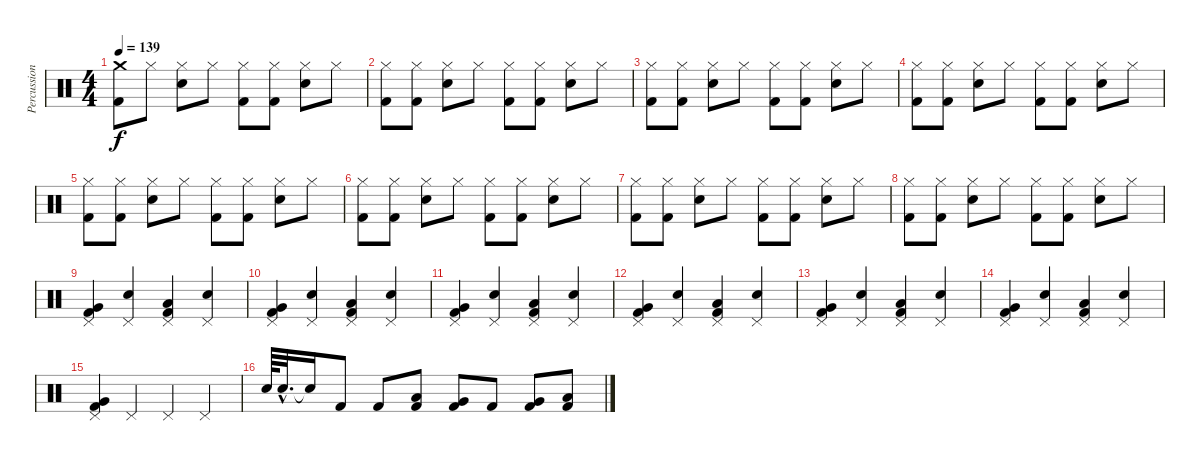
\track ("Percussion" "Percussion") {instrument percussion}
\staff {score}
\articulation defaults
\ts (4 4)
\tempo 139
\clef neutral
\ks c
("Crash medium (hit)" "Kick (hit) 2").8{dy f} "Hi-Hat (closed)".8 ("Hi-Hat (closed)" "Metronome (bell)").8 "Hi-Hat (closed)".8 ("Hi-Hat (closed)" "Kick (hit) 2").8 ("Hi-Hat (closed)" "Kick (hit) 2").8 ("Hi-Hat (closed)" "Metronome (bell)").8 "Hi-Hat (closed)".8 |
("Hi-Hat (closed)" "Kick (hit) 2").8 ("Hi-Hat (closed)" "Kick (hit) 2").8 ("Hi-Hat (closed)" "Metronome (bell)").8 "Hi-Hat (closed)".8 ("Hi-Hat (closed)" "Kick (hit) 2").8 ("Hi-Hat (closed)" "Kick (hit) 2").8 ("Hi-Hat (closed)" "Metronome (bell)").8 "Hi-Hat (closed)".8 |
("Hi-Hat (closed)" "Kick (hit) 2").8 ("Hi-Hat (closed)" "Kick (hit) 2").8 ("Hi-Hat (closed)" "Metronome (bell)").8 "Hi-Hat (closed)".8 ("Hi-Hat (closed)" "Kick (hit) 2").8 ("Hi-Hat (closed)" "Kick (hit) 2").8 ("Hi-Hat (closed)" "Metronome (bell)").8 "Hi-Hat (closed)".8 |
("Hi-Hat (closed)" "Kick (hit) 2").8 ("Hi-Hat (closed)" "Kick (hit) 2").8 ("Hi-Hat (closed)" "Metronome (bell)").8 "Hi-Hat (closed)".8 ("Hi-Hat (closed)" "Kick (hit) 2").8 ("Hi-Hat (closed)" "Kick (hit) 2").8 ("Hi-Hat (closed)" "Metronome (bell)").8 "Hi-Hat (closed)".8 |
("Hi-Hat (closed)" "Kick (hit) 2").8 ("Hi-Hat (closed)" "Kick (hit) 2").8 ("Hi-Hat (closed)" "Metronome (bell)").8 "Hi-Hat (closed)".8 ("Hi-Hat (closed)" "Kick (hit) 2").8 ("Hi-Hat (closed)" "Kick (hit) 2").8 ("Hi-Hat (closed)" "Metronome (bell)").8 "Hi-Hat (closed)".8 |
("Hi-Hat (closed)" "Kick (hit) 2").8 ("Hi-Hat (closed)" "Kick (hit) 2").8 ("Hi-Hat (closed)" "Metronome (bell)").8 "Hi-Hat (closed)".8 ("Hi-Hat (closed)" "Kick (hit) 2").8 ("Hi-Hat (closed)" "Kick (hit) 2").8 ("Hi-Hat (closed)" "Metronome (bell)").8 "Hi-Hat (closed)".8 |
("Hi-Hat (closed)" "Kick (hit) 2").8 ("Hi-Hat (closed)" "Kick (hit) 2").8 ("Hi-Hat (closed)" "Metronome (bell)").8 "Hi-Hat (closed)".8 ("Hi-Hat (closed)" "Kick (hit) 2").8 ("Hi-Hat (closed)" "Kick (hit) 2").8 ("Hi-Hat (closed)" "Metronome (bell)").8 "Hi-Hat (closed)".8 |
("Hi-Hat (closed)" "Kick (hit) 2").8 ("Hi-Hat (closed)" "Kick (hit) 2").8 ("Hi-Hat (closed)" "Metronome (bell)").8 "Hi-Hat (closed)".8 ("Hi-Hat (closed)" "Kick (hit) 2").8 ("Hi-Hat (closed)" "Kick (hit) 2").8 ("Hi-Hat (closed)" "Metronome (bell)").8 "Hi-Hat (closed)".8 |
("Pedal Hi-Hat (hit)" "Very Low Tom (hit)" "Kick (hit) 2").4 ("Pedal Hi-Hat (hit)" "Metronome (bell)").4 ("Pedal Hi-Hat (hit)" "Low Floor Tom (hit)" "Kick (hit) 2").4 ("Pedal Hi-Hat (hit)" "Metronome (bell)").4 |
("Pedal Hi-Hat (hit)" "Very Low Tom (hit)" "Kick (hit) 2").4 ("Pedal Hi-Hat (hit)" "Metronome (bell)").4 ("Pedal Hi-Hat (hit)" "Low Floor Tom (hit)" "Kick (hit) 2").4 ("Pedal Hi-Hat (hit)" "Metronome (bell)").4 |
("Pedal Hi-Hat (hit)" "Very Low Tom (hit)" "Kick (hit) 2").4 ("Pedal Hi-Hat (hit)" "Metronome (bell)").4 ("Pedal Hi-Hat (hit)" "Low Floor Tom (hit)" "Kick (hit) 2").4 ("Pedal Hi-Hat (hit)" "Metronome (bell)").4 |
("Pedal Hi-Hat (hit)" "Very Low Tom (hit)" "Kick (hit) 2").4 ("Pedal Hi-Hat (hit)" "Metronome (bell)").4 ("Pedal Hi-Hat (hit)" "Low Floor Tom (hit)" "Kick (hit) 2").4 ("Pedal Hi-Hat (hit)" "Metronome (bell)").4 |
("Pedal Hi-Hat (hit)" "Very Low Tom (hit)" "Kick (hit) 2").4 ("Pedal Hi-Hat (hit)" "Metronome (bell)").4 ("Pedal Hi-Hat (hit)" "Low Floor Tom (hit)" "Kick (hit) 2").4 ("Pedal Hi-Hat (hit)" "Metronome (bell)").4 |
("Pedal Hi-Hat (hit)" "Very Low Tom (hit)" "Kick (hit) 2").4 ("Pedal Hi-Hat (hit)" "Metronome (bell)").4 ("Pedal Hi-Hat (hit)" "Low Floor Tom (hit)" "Kick (hit) 2").4 ("Pedal Hi-Hat (hit)" "Metronome (bell)").4 |
("Pedal Hi-Hat (hit)" "Very Low Tom (hit)" "Kick (hit) 2").4 "Pedal Hi-Hat (hit)".4 "Pedal Hi-Hat (hit)".4 "Pedal Hi-Hat (hit)".4 |
"Metronome (bell)".64 "Metronome (bell)"{hac}.32{d} "Snare (hit)"{t}.16 "Kick (hit) 2".8 "Kick (hit) 2".8 ("Low Tom (hit)" "Kick (hit) 2").8 ("Very Low Tom (hit)" "Kick (hit) 2").8 "Kick (hit) 2".8 ("Very Low Tom (hit)" "Kick (hit) 2").8 ("Low Floor Tom (hit)" "Kick (hit) 2").8
